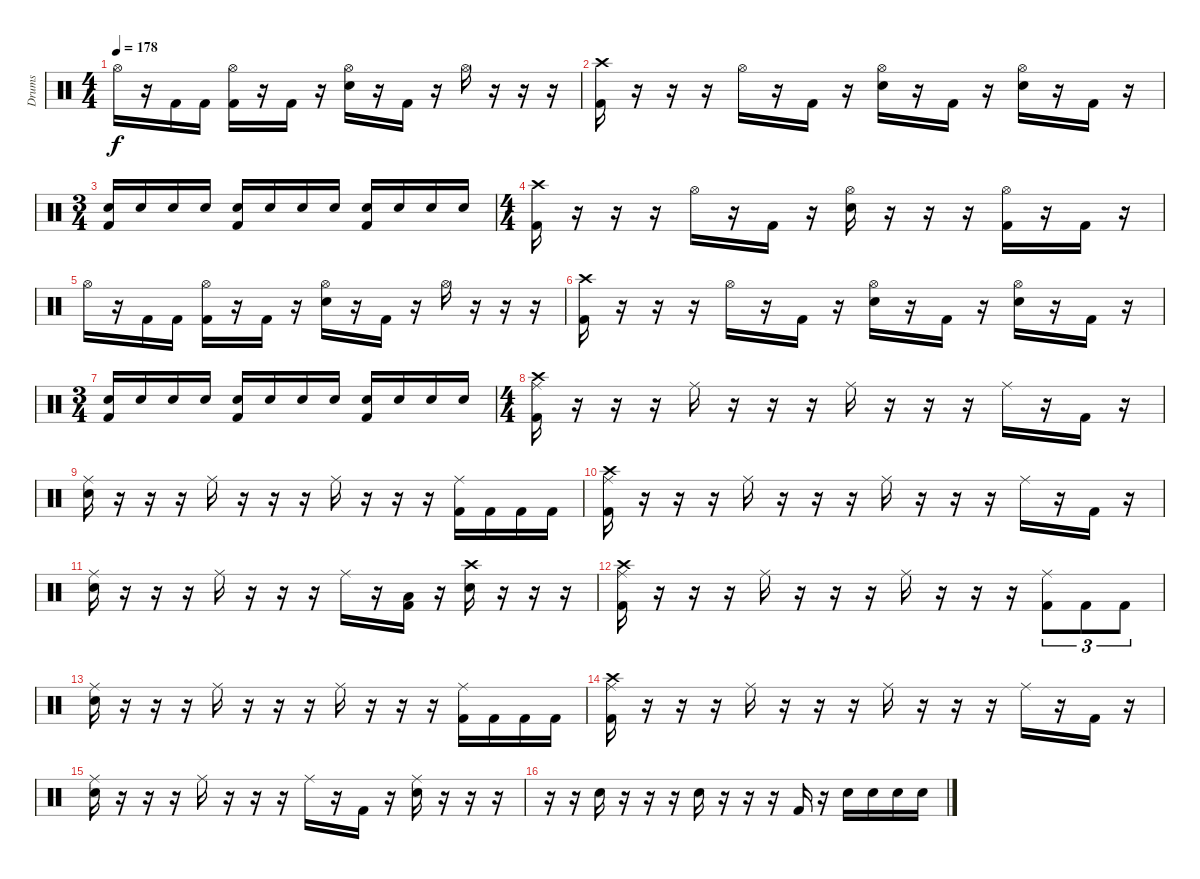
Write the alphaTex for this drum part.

\track ("Drums" "Drums") {instrument percussion}
\staff {score}
\articulation defaults
\ts (4 4)
\tempo 178
\clef neutral
\ks c "Hi-Hat (open)".16{dy f}
r.16 "Kick (hit) 2".16 "Kick (hit) 2".16 ("Hi-Hat (open)" "Kick (hit) 2").16 r.16 "Kick (hit) 2".16 r.16 ("Hi-Hat (open)" "Electric Snare (hit)").16 r.16 "Kick (hit) 2".16 r.16 "Hi-Hat (open)".16 r.16 r.16 r.16 |
("Crash high (hit)" "Kick (hit) 2").16 r.16 r.16 r.16 "Hi-Hat (open)".16 r.16 "Kick (hit) 2".16 r.16 ("Hi-Hat (open)" "Electric Snare (hit)").16 r.16 "Kick (hit) 2".16 r.16 ("Hi-Hat (open)" "Electric Snare (hit)").16 r.16 "Kick (hit) 2".16 r.16 |
\ts (3 4)
("Electric Snare (hit)" "Kick (hit) 2").16 "Electric Snare (hit)".16 "Electric Snare (hit)".16 "Electric Snare (hit)".16 ("Electric Snare (hit)" "Kick (hit) 2").16 "Electric Snare (hit)".16 "Electric Snare (hit)".16 "Electric Snare (hit)".16 ("Electric Snare (hit)" "Kick (hit) 2").16 "Electric Snare (hit)".16 "Electric Snare (hit)".16 "Electric Snare (hit)".16 |
\ts (4 4)
("Crash high (hit)" "Kick (hit) 2").16 r.16 r.16 r.16 "Hi-Hat (open)".16 r.16 "Kick (hit) 2".16 r.16 ("Hi-Hat (open)" "Electric Snare (hit)").16 r.16 r.16 r.16 ("Hi-Hat (open)" "Kick (hit) 2").16 r.16 "Kick (hit) 2".16 r.16 |
"Hi-Hat (open)".16 r.16 "Kick (hit) 2".16 "Kick (hit) 2".16 ("Hi-Hat (open)" "Kick (hit) 2").16 r.16 "Kick (hit) 2".16 r.16 ("Hi-Hat (open)" "Electric Snare (hit)").16 r.16 "Kick (hit) 2".16 r.16 "Hi-Hat (open)".16 r.16 r.16 r.16 |
("Crash high (hit)" "Kick (hit) 2").16 r.16 r.16 r.16 "Hi-Hat (open)".16 r.16 "Kick (hit) 2".16 r.16 ("Hi-Hat (open)" "Electric Snare (hit)").16 r.16 "Kick (hit) 2".16 r.16 ("Hi-Hat (open)" "Electric Snare (hit)").16 r.16 "Kick (hit) 2".16 r.16 |
\ts (3 4)
("Electric Snare (hit)" "Kick (hit) 2").16 "Electric Snare (hit)".16 "Electric Snare (hit)".16 "Electric Snare (hit)".16 ("Electric Snare (hit)" "Kick (hit) 2").16 "Electric Snare (hit)".16 "Electric Snare (hit)".16 "Electric Snare (hit)".16 ("Electric Snare (hit)" "Kick (hit) 2").16 "Electric Snare (hit)".16 "Electric Snare (hit)".16 "Electric Snare (hit)".16 |
\ts (4 4)
("Ride (middle)" "Crash high (hit)" "Kick (hit) 2").16 r.16 r.16 r.16 "Ride (middle)".16 r.16 r.16 r.16 "Ride (middle)".16 r.16 r.16 r.16 "Ride (middle)".16 r.16 "Kick (hit) 2".16 r.16 |
("Ride (middle)" "Electric Snare (hit)").16 r.16 r.16 r.16 "Ride (middle)".16 r.16 r.16 r.16 "Ride (middle)".16 r.16 r.16 r.16 ("Ride (middle)" "Kick (hit) 2").16 "Kick (hit) 2".16 "Kick (hit) 2".16 "Kick (hit) 2".16 |
("Ride (middle)" "Crash high (hit)" "Kick (hit) 2").16 r.16 r.16 r.16 "Ride (middle)".16 r.16 r.16 r.16 "Ride (middle)".16 r.16 r.16 r.16 "Ride (middle)".16 r.16 "Kick (hit) 2".16 r.16 |
("Ride (middle)" "Electric Snare (hit)").16 r.16 r.16 r.16 "Ride (middle)".16 r.16 r.16 r.16 "Ride (middle)".16 r.16 ("Low Tom (hit)" "Kick (hit) 2").16 r.16 ("Crash high (hit)" "Electric Snare (hit)").16 r.16 r.16 r.16 |
("Ride (middle)" "Crash high (hit)" "Kick (hit) 2").16 r.16 r.16 r.16 "Ride (middle)".16 r.16 r.16 r.16 "Ride (middle)".16 r.16 r.16 r.16 ("Ride (middle)" "Kick (hit) 2").8{tu (3 2)} "Kick (hit) 2".8{tu (3 2)} "Kick (hit) 2".8{tu (3 2)} |
("Ride (middle)" "Electric Snare (hit)").16 r.16 r.16 r.16 "Ride (middle)".16 r.16 r.16 r.16 "Ride (middle)".16 r.16 r.16 r.16 ("Ride (middle)" "Kick (hit) 2").16 "Kick (hit) 2".16 "Kick (hit) 2".16 "Kick (hit) 2".16 |
("Ride (middle)" "Crash high (hit)" "Kick (hit) 2").16 r.16 r.16 r.16 "Ride (middle)".16 r.16 r.16 r.16 "Ride (middle)".16 r.16 r.16 r.16 "Ride (middle)".16 r.16 "Kick (hit) 2".16 r.16 |
("Ride (middle)" "Electric Snare (hit)").16 r.16 r.16 r.16 "Ride (middle)".16 r.16 r.16 r.16 "Ride (middle)".16 r.16 "Kick (hit) 2".16 r.16 ("Ride (middle)" "Electric Snare (hit)").16 r.16 r.16 r.16 |
r.16 r.16 "Electric Snare (hit)".16 r.16 r.16 r.16 "Electric Snare (hit)".16 r.16 r.16 r.16 "Kick (hit) 2".16 r.16 "Electric Snare (hit)".16 "Electric Snare (hit)".16 "Electric Snare (hit)".16 "Electric Snare (hit)".16
